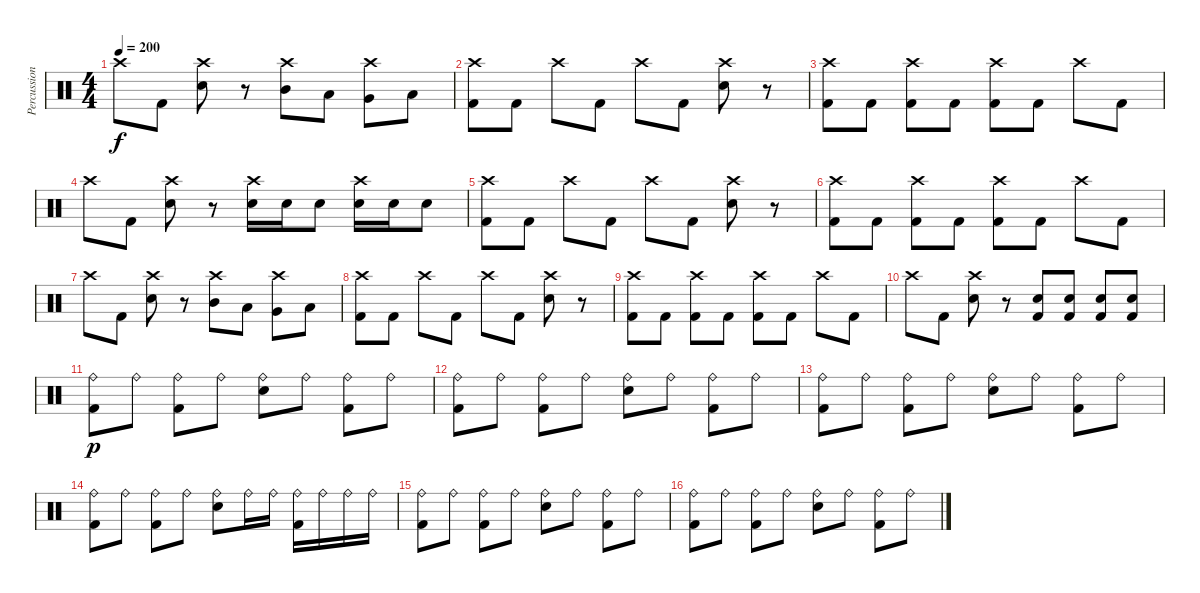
\track ("Percussion" "Percussion") {instrument percussion}
\staff {score}
\articulation defaults
\ts (4 4)
\tempo 200
\clef neutral
\ks c "Crash high (hit)".8{dy f} "Kick (hit) 2".8
("Crash high (hit)" "Electric Snare (hit)").8 r.8 ("Crash high (hit)" "Mid Tom (hit)").8 "Low Tom (hit)".8 ("Crash high (hit)" "Very Low Tom (hit)").8 "Low Floor Tom (hit)".8 |
("Crash high (hit)" "Kick (hit) 2").8 "Kick (hit) 2".8 "Crash high (hit)".8 "Kick (hit) 2".8 "Crash high (hit)".8 "Kick (hit) 2".8 ("Crash high (hit)" "Electric Snare (hit)").8 r.8 |
("Crash high (hit)" "Kick (hit) 2").8 "Kick (hit) 2".8 ("Crash high (hit)" "Kick (hit) 2").8 "Kick (hit) 2".8 ("Crash high (hit)" "Kick (hit) 2").8 "Kick (hit) 2".8 "Crash high (hit)".8 "Kick (hit) 2".8 |
"Crash high (hit)".8 "Kick (hit) 2".8 ("Crash high (hit)" "Electric Snare (hit)").8 r.8 ("Crash high (hit)" "Electric Snare (hit)").16 "Electric Snare (hit)".16 "Electric Snare (hit)".8 ("Crash high (hit)" "Electric Snare (hit)").16 "Electric Snare (hit)".16 "Electric Snare (hit)".8 |
("Crash high (hit)" "Kick (hit) 2").8 "Kick (hit) 2".8 "Crash high (hit)".8 "Kick (hit) 2".8 "Crash high (hit)".8 "Kick (hit) 2".8 ("Crash high (hit)" "Electric Snare (hit)").8 r.8 |
("Crash high (hit)" "Kick (hit) 2").8 "Kick (hit) 2".8 ("Crash high (hit)" "Kick (hit) 2").8 "Kick (hit) 2".8 ("Crash high (hit)" "Kick (hit) 2").8 "Kick (hit) 2".8 "Crash high (hit)".8 "Kick (hit) 2".8 |
"Crash high (hit)".8 "Kick (hit) 2".8 ("Crash high (hit)" "Electric Snare (hit)").8 r.8 ("Crash high (hit)" "Mid Tom (hit)").8 "Low Tom (hit)".8 ("Crash high (hit)" "Very Low Tom (hit)").8 "Low Floor Tom (hit)".8 |
("Crash high (hit)" "Kick (hit) 2").8 "Kick (hit) 2".8 "Crash high (hit)".8 "Kick (hit) 2".8 "Crash high (hit)".8 "Kick (hit) 2".8 ("Crash high (hit)" "Electric Snare (hit)").8 r.8 |
("Crash high (hit)" "Kick (hit) 2").8 "Kick (hit) 2".8 ("Crash high (hit)" "Kick (hit) 2").8 "Kick (hit) 2".8 ("Crash high (hit)" "Kick (hit) 2").8 "Kick (hit) 2".8 "Crash high (hit)".8 "Kick (hit) 2".8 |
"Crash high (hit)".8 "Kick (hit) 2".8 ("Crash high (hit)" "Electric Snare (hit)").8 r.8 ("Electric Snare (hit)" "Kick (hit) 2").8 ("Electric Snare (hit)" "Kick (hit) 2").8 ("Electric Snare (hit)" "Kick (hit) 2").8 ("Electric Snare (hit)" "Kick (hit) 2").8 |
("Ride (bell)" "Kick (hit) 2").8{dy p} "Ride (bell)".8 ("Ride (bell)" "Kick (hit) 2").8 "Ride (bell)".8 ("Ride (bell)" "Electric Snare (hit)").8 "Ride (bell)".8 ("Ride (bell)" "Kick (hit) 2").8 "Ride (bell)".8 |
("Ride (bell)" "Kick (hit) 2").8 "Ride (bell)".8 ("Ride (bell)" "Kick (hit) 2").8 "Ride (bell)".8 ("Ride (bell)" "Electric Snare (hit)").8 "Ride (bell)".8 ("Ride (bell)" "Kick (hit) 2").8 "Ride (bell)".8 |
("Ride (bell)" "Kick (hit) 2").8 "Ride (bell)".8 ("Ride (bell)" "Kick (hit) 2").8 "Ride (bell)".8 ("Ride (bell)" "Electric Snare (hit)").8 "Ride (bell)".8 ("Ride (bell)" "Kick (hit) 2").8 "Ride (bell)".8 |
("Ride (bell)" "Kick (hit) 2").8 "Ride (bell)".8 ("Ride (bell)" "Kick (hit) 2").8 "Ride (bell)".8 ("Ride (bell)" "Electric Snare (hit)").8 "Ride (bell)".16 "Ride (bell)".16 ("Ride (bell)" "Kick (hit) 2").16 "Ride (bell)".16 "Ride (bell)".16 "Ride (bell)".16 |
("Ride (bell)" "Kick (hit) 2").8 "Ride (bell)".8 ("Ride (bell)" "Kick (hit) 2").8 "Ride (bell)".8 ("Ride (bell)" "Electric Snare (hit)").8 "Ride (bell)".8 ("Ride (bell)" "Kick (hit) 2").8 "Ride (bell)".8 |
("Ride (bell)" "Kick (hit) 2").8 "Ride (bell)".8 ("Ride (bell)" "Kick (hit) 2").8 "Ride (bell)".8 ("Ride (bell)" "Electric Snare (hit)").8 "Ride (bell)".8 ("Ride (bell)" "Kick (hit) 2").8 "Ride (bell)".8
